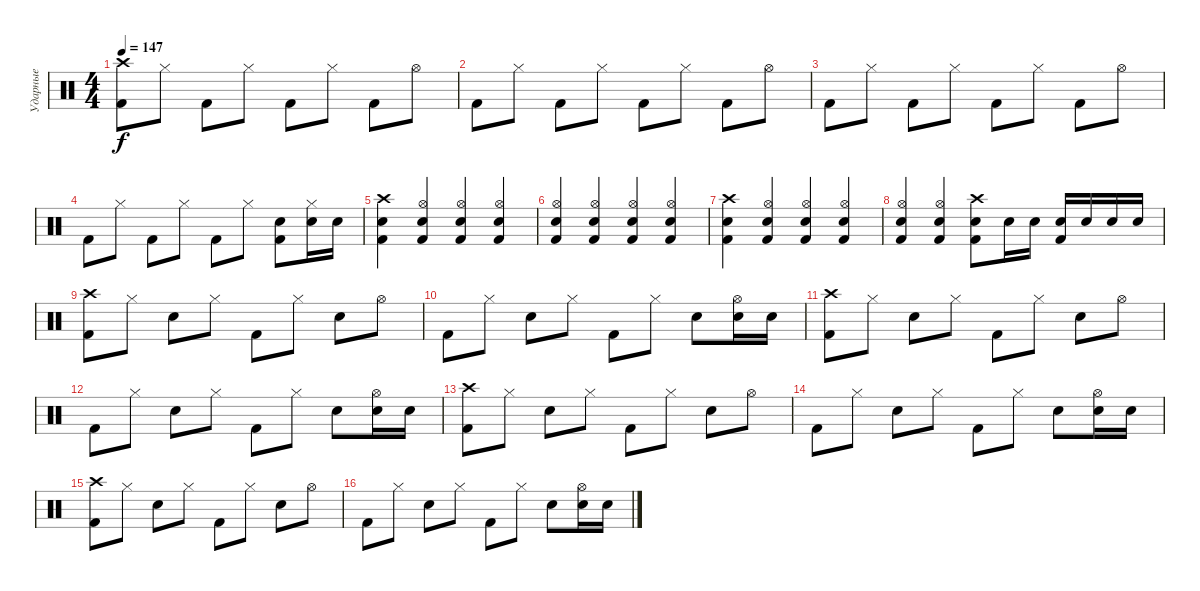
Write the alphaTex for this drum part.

\track ("Ударные" "Ударные") {instrument percussion}
\staff {score}
\articulation defaults
\ts (4 4)
\tempo 147
\clef neutral
\ks c
("Crash high (hit)" "Kick (hit) 2").8{dy f} "Hi-Hat (closed)".8 "Kick (hit) 2".8 "Hi-Hat (closed)".8 "Kick (hit) 2".8 "Hi-Hat (closed)".8 "Kick (hit) 2".8 "Hi-Hat (open)".8 |
"Kick (hit) 2".8 "Hi-Hat (closed)".8 "Kick (hit) 2".8 "Hi-Hat (closed)".8 "Kick (hit) 2".8 "Hi-Hat (closed)".8 "Kick (hit) 2".8 "Hi-Hat (open)".8 |
"Kick (hit) 2".8 "Hi-Hat (closed)".8 "Kick (hit) 2".8 "Hi-Hat (closed)".8 "Kick (hit) 2".8 "Hi-Hat (closed)".8 "Kick (hit) 2".8 "Hi-Hat (open)".8 |
"Kick (hit) 2".8 "Hi-Hat (closed)".8 "Kick (hit) 2".8 "Hi-Hat (closed)".8 "Kick (hit) 2".8 "Hi-Hat (closed)".8 ("Kick (hit) 2" "Electric Snare (hit)").8 ("Hi-Hat (closed)" "Electric Snare (hit)").16 "Electric Snare (hit)".16 |
("Crash high (hit)" "Electric Snare (hit)" "Kick (hit) 2").4 ("Hi-Hat (open)" "Electric Snare (hit)" "Kick (hit) 2").4 ("Hi-Hat (open)" "Electric Snare (hit)" "Kick (hit) 2").4 ("Hi-Hat (open)" "Electric Snare (hit)" "Kick (hit) 2").4 |
("Hi-Hat (open)" "Electric Snare (hit)" "Kick (hit) 2").4 ("Hi-Hat (open)" "Electric Snare (hit)" "Kick (hit) 2").4 ("Hi-Hat (open)" "Electric Snare (hit)" "Kick (hit) 2").4 ("Hi-Hat (open)" "Electric Snare (hit)" "Kick (hit) 2").4 |
("Crash high (hit)" "Electric Snare (hit)" "Kick (hit) 2").4 ("Hi-Hat (open)" "Electric Snare (hit)" "Kick (hit) 2").4 ("Hi-Hat (open)" "Electric Snare (hit)" "Kick (hit) 2").4 ("Hi-Hat (open)" "Electric Snare (hit)" "Kick (hit) 2").4 |
("Hi-Hat (open)" "Electric Snare (hit)" "Kick (hit) 2").4 ("Hi-Hat (open)" "Electric Snare (hit)" "Kick (hit) 2").4 ("Crash high (hit)" "Electric Snare (hit)" "Kick (hit) 2").8 "Electric Snare (hit)".16 "Electric Snare (hit)".16 ("Electric Snare (hit)" "Kick (hit) 2").16 "Electric Snare (hit)".16 "Electric Snare (hit)".16 "Electric Snare (hit)".16 |
("Crash high (hit)" "Kick (hit) 2").8 "Hi-Hat (closed)".8 "Electric Snare (hit)".8 "Hi-Hat (closed)".8 "Kick (hit) 2".8 "Hi-Hat (closed)".8 "Electric Snare (hit)".8 "Hi-Hat (open)".8 |
"Kick (hit) 2".8 "Hi-Hat (closed)".8 "Electric Snare (hit)".8 "Hi-Hat (closed)".8 "Kick (hit) 2".8 "Hi-Hat (closed)".8 "Electric Snare (hit)".8 ("Hi-Hat (open)" "Electric Snare (hit)").16 "Electric Snare (hit)".16 |
("Crash high (hit)" "Kick (hit) 2").8 "Hi-Hat (closed)".8 "Electric Snare (hit)".8 "Hi-Hat (closed)".8 "Kick (hit) 2".8 "Hi-Hat (closed)".8 "Electric Snare (hit)".8 "Hi-Hat (open)".8 |
"Kick (hit) 2".8 "Hi-Hat (closed)".8 "Electric Snare (hit)".8 "Hi-Hat (closed)".8 "Kick (hit) 2".8 "Hi-Hat (closed)".8 "Electric Snare (hit)".8 ("Hi-Hat (open)" "Electric Snare (hit)").16 "Electric Snare (hit)".16 |
("Crash high (hit)" "Kick (hit) 2").8 "Hi-Hat (closed)".8 "Electric Snare (hit)".8 "Hi-Hat (closed)".8 "Kick (hit) 2".8 "Hi-Hat (closed)".8 "Electric Snare (hit)".8 "Hi-Hat (open)".8 |
"Kick (hit) 2".8 "Hi-Hat (closed)".8 "Electric Snare (hit)".8 "Hi-Hat (closed)".8 "Kick (hit) 2".8 "Hi-Hat (closed)".8 "Electric Snare (hit)".8 ("Hi-Hat (open)" "Electric Snare (hit)").16 "Electric Snare (hit)".16 |
("Crash high (hit)" "Kick (hit) 2").8 "Hi-Hat (closed)".8 "Electric Snare (hit)".8 "Hi-Hat (closed)".8 "Kick (hit) 2".8 "Hi-Hat (closed)".8 "Electric Snare (hit)".8 "Hi-Hat (open)".8 |
"Kick (hit) 2".8 "Hi-Hat (closed)".8 "Electric Snare (hit)".8 "Hi-Hat (closed)".8 "Kick (hit) 2".8 "Hi-Hat (closed)".8 "Electric Snare (hit)".8 ("Hi-Hat (open)" "Electric Snare (hit)").16 "Electric Snare (hit)".16
